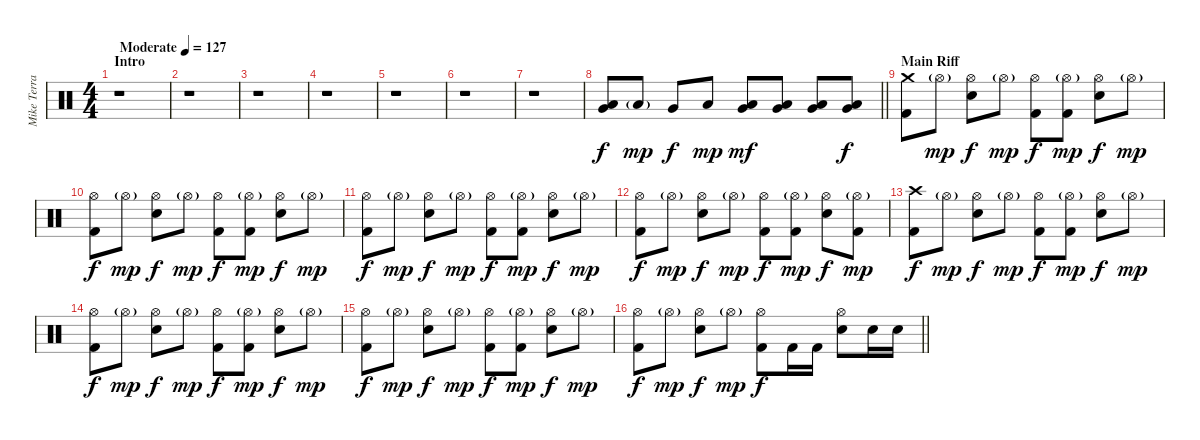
\track ("Mike Terrana" "Mike Terra") {instrument percussion}
\staff {score}
\articulation defaults
\ts (4 4)
\section ("" "Intro")
\tempo (127 "Moderate")
\clef neutral
\ks c
r.1{dy f} |
r.1 |
r.1 |
r.1 |
r.1 |
r.1 |
r.1 |
\barLineRight lightlight
("Very Low Tom (hit)" "Low Floor Tom (hit)").8 "Low Floor Tom (hit)"{g}.8{dy mp} "Very Low Tom (hit)".8{dy f} "Low Floor Tom (hit)".8{dy mp} ("Very Low Tom (hit)" "Low Floor Tom (hit)").8{dy mf} ("Very Low Tom (hit)" "Low Floor Tom (hit)").8 ("Very Low Tom (hit)" "Low Floor Tom (hit)").8 ("Very Low Tom (hit)" "Low Floor Tom (hit)").8{dy f} |
\section ("" "Main Riff")
("Crash medium (hit)" "Kick (hit) 2").8 "Hi-Hat (open)"{g}.8{dy mp} ("Hi-Hat (open)" "Snare (hit) 2").8{dy f} "Hi-Hat (open)"{g}.8{dy mp} ("Hi-Hat (open)" "Kick (hit) 2").8{dy f} ("Hi-Hat (open)"{g} "Kick (hit) 2").8{dy mp} ("Hi-Hat (open)" "Snare (hit) 2").8{dy f} "Hi-Hat (open)"{g}.8{dy mp} |
("Hi-Hat (open)" "Kick (hit) 2").8{dy f} "Hi-Hat (open)"{g}.8{dy mp} ("Hi-Hat (open)" "Snare (hit) 2").8{dy f} "Hi-Hat (open)"{g}.8{dy mp} ("Hi-Hat (open)" "Kick (hit) 2").8{dy f} ("Hi-Hat (open)"{g} "Kick (hit) 2").8{dy mp} ("Hi-Hat (open)" "Snare (hit) 2").8{dy f} "Hi-Hat (open)"{g}.8{dy mp} |
("Hi-Hat (open)" "Kick (hit) 2").8{dy f} "Hi-Hat (open)"{g}.8{dy mp} ("Hi-Hat (open)" "Snare (hit) 2").8{dy f} "Hi-Hat (open)"{g}.8{dy mp} ("Hi-Hat (open)" "Kick (hit) 2").8{dy f} ("Hi-Hat (open)"{g} "Kick (hit) 2").8{dy mp} ("Hi-Hat (open)" "Snare (hit) 2").8{dy f} "Hi-Hat (open)"{g}.8{dy mp} |
("Hi-Hat (open)" "Kick (hit) 2").8{dy f} "Hi-Hat (open)"{g}.8{dy mp} ("Hi-Hat (open)" "Snare (hit) 2").8{dy f} "Hi-Hat (open)"{g}.8{dy mp} ("Hi-Hat (open)" "Kick (hit) 2").8{dy f} ("Hi-Hat (open)"{g} "Kick (hit) 2").8{dy mp} ("Hi-Hat (open)" "Snare (hit) 2").8{dy f} ("Hi-Hat (open)"{g} "Kick (hit) 2").8{dy mp} |
("Crash high (hit)" "Kick (hit) 2").8{dy f} "Hi-Hat (open)"{g}.8{dy mp} ("Hi-Hat (open)" "Snare (hit) 2").8{dy f} "Hi-Hat (open)"{g}.8{dy mp} ("Hi-Hat (open)" "Kick (hit) 2").8{dy f} ("Hi-Hat (open)"{g} "Kick (hit) 2").8{dy mp} ("Hi-Hat (open)" "Snare (hit) 2").8{dy f} "Hi-Hat (open)"{g}.8{dy mp} |
("Hi-Hat (open)" "Kick (hit) 2").8{dy f} "Hi-Hat (open)"{g}.8{dy mp} ("Hi-Hat (open)" "Snare (hit) 2").8{dy f} "Hi-Hat (open)"{g}.8{dy mp} ("Hi-Hat (open)" "Kick (hit) 2").8{dy f} ("Hi-Hat (open)"{g} "Kick (hit) 2").8{dy mp} ("Hi-Hat (open)" "Snare (hit) 2").8{dy f} "Hi-Hat (open)"{g}.8{dy mp} |
("Hi-Hat (open)" "Kick (hit) 2").8{dy f} "Hi-Hat (open)"{g}.8{dy mp} ("Hi-Hat (open)" "Snare (hit) 2").8{dy f} "Hi-Hat (open)"{g}.8{dy mp} ("Hi-Hat (open)" "Kick (hit) 2").8{dy f} ("Hi-Hat (open)"{g} "Kick (hit) 2").8{dy mp} ("Hi-Hat (open)" "Snare (hit) 2").8{dy f} "Hi-Hat (open)"{g}.8{dy mp} |
\barLineRight lightlight
("Hi-Hat (open)" "Kick (hit) 2").8{dy f} "Hi-Hat (open)"{g}.8{dy mp} ("Hi-Hat (open)" "Snare (hit) 2").8{dy f} "Hi-Hat (open)"{g}.8{dy mp} ("Hi-Hat (open)" "Kick (hit) 2").8{dy f} "Kick (hit) 2".16 "Kick (hit) 2".16 ("Hi-Hat (open)" "Snare (hit) 2").8 "Snare (hit) 2".16 "Snare (hit) 2".16
